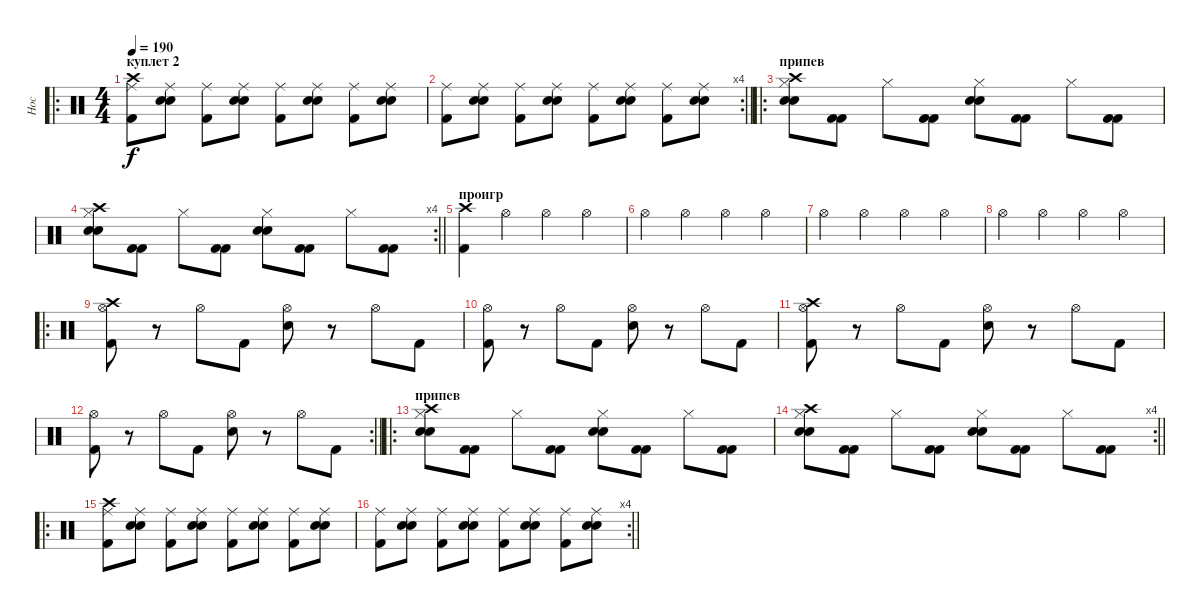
\track ("Нос" "Нос") {instrument percussion}
\staff {score}
\articulation defaults
\ro
\ts (4 4)
\section ("" "куплет 2")
\tempo 190
\clef neutral
\ks c
("Crash high (hit)" "Ride (middle)" "Kick (hit) 2").8{dy f} ("Snare (hit) 2" "Ride (middle)" "Snare (hit) 2").8 ("Ride (middle)" "Kick (hit) 2").8 ("Snare (hit) 2" "Ride (middle)" "Snare (hit) 2").8 ("Ride (middle)" "Kick (hit) 2").8 ("Snare (hit) 2" "Ride (middle)" "Snare (hit) 2").8 ("Ride (middle)" "Kick (hit) 2").8 ("Snare (hit) 2" "Ride (middle)" "Snare (hit) 2").8 |
\rc 4
\barLineRight lightlight
("Ride (middle)" "Kick (hit) 2").8 ("Snare (hit) 2" "Ride (middle)" "Snare (hit) 2").8 ("Ride (middle)" "Kick (hit) 2").8 ("Snare (hit) 2" "Ride (middle)" "Snare (hit) 2").8 ("Ride (middle)" "Kick (hit) 2").8 ("Snare (hit) 2" "Ride (middle)" "Snare (hit) 2").8 ("Ride (middle)" "Kick (hit) 2").8 ("Snare (hit) 2" "Ride (middle)" "Snare (hit) 2").8 |
\ro
\section ("" "припев")
("Hi-Hat (closed)" "Snare (hit) 2" "Crash high (hit)" "Snare (hit) 2").8 ("Kick (hit) 2" "Kick (hit) 2").8 "Hi-Hat (closed)".8 ("Kick (hit) 2" "Kick (hit) 2").8 ("Hi-Hat (closed)" "Snare (hit) 2" "Snare (hit) 2").8 ("Kick (hit) 2" "Kick (hit) 2").8 "Hi-Hat (closed)".8 ("Kick (hit) 2" "Kick (hit) 2").8 |
\rc 4
\barLineRight lightlight
("Hi-Hat (closed)" "Snare (hit) 2" "Crash high (hit)" "Snare (hit) 2").8 ("Kick (hit) 2" "Kick (hit) 2").8 "Hi-Hat (closed)".8 ("Kick (hit) 2" "Kick (hit) 2").8 ("Hi-Hat (closed)" "Snare (hit) 2" "Snare (hit) 2").8 ("Kick (hit) 2" "Kick (hit) 2").8 "Hi-Hat (closed)".8 ("Kick (hit) 2" "Kick (hit) 2").8 |
\section ("" "проигр")
("Crash high (hit)" "Kick (hit) 2").4 "Hi-Hat (open)".4 "Hi-Hat (open)".4 "Hi-Hat (open)".4 |
"Hi-Hat (open)".4 "Hi-Hat (open)".4 "Hi-Hat (open)".4 "Hi-Hat (open)".4 |
"Hi-Hat (open)".4 "Hi-Hat (open)".4 "Hi-Hat (open)".4 "Hi-Hat (open)".4 |
"Hi-Hat (open)".4 "Hi-Hat (open)".4 "Hi-Hat (open)".4 "Hi-Hat (open)".4 |
\ro
("Crash high (hit)" "Kick (hit) 2" "Hi-Hat (open)").8 r.8 "Hi-Hat (open)".8 "Kick (hit) 2".8 ("Snare (hit) 2" "Hi-Hat (open)").8 r.8 "Hi-Hat (open)".8 "Kick (hit) 2".8 |
("Kick (hit) 2" "Hi-Hat (open)").8 r.8 "Hi-Hat (open)".8 "Kick (hit) 2".8 ("Snare (hit) 2" "Hi-Hat (open)").8 r.8 "Hi-Hat (open)".8 "Kick (hit) 2".8 |
("Crash high (hit)" "Kick (hit) 2" "Hi-Hat (open)").8 r.8 "Hi-Hat (open)".8 "Kick (hit) 2".8 ("Snare (hit) 2" "Hi-Hat (open)").8 r.8 "Hi-Hat (open)".8 "Kick (hit) 2".8 |
\rc 2
\barLineRight lightlight
("Kick (hit) 2" "Hi-Hat (open)").8 r.8 "Hi-Hat (open)".8 "Kick (hit) 2".8 ("Snare (hit) 2" "Hi-Hat (open)").8 r.8 "Hi-Hat (open)".8 "Kick (hit) 2".8 |
\ro
\section ("" "припев")
("Hi-Hat (closed)" "Snare (hit) 2" "Crash high (hit)" "Snare (hit) 2").8 ("Kick (hit) 2" "Kick (hit) 2").8 "Hi-Hat (closed)".8 ("Kick (hit) 2" "Kick (hit) 2").8 ("Hi-Hat (closed)" "Snare (hit) 2" "Snare (hit) 2").8 ("Kick (hit) 2" "Kick (hit) 2").8 "Hi-Hat (closed)".8 ("Kick (hit) 2" "Kick (hit) 2").8 |
\rc 4
\barLineRight lightlight
("Hi-Hat (closed)" "Snare (hit) 2" "Crash high (hit)" "Snare (hit) 2").8 ("Kick (hit) 2" "Kick (hit) 2").8 "Hi-Hat (closed)".8 ("Kick (hit) 2" "Kick (hit) 2").8 ("Hi-Hat (closed)" "Snare (hit) 2" "Snare (hit) 2").8 ("Kick (hit) 2" "Kick (hit) 2").8 "Hi-Hat (closed)".8 ("Kick (hit) 2" "Kick (hit) 2").8 |
\ro
("Crash high (hit)" "Ride (middle)" "Kick (hit) 2").8 ("Snare (hit) 2" "Ride (middle)" "Snare (hit) 2").8 ("Ride (middle)" "Kick (hit) 2").8 ("Snare (hit) 2" "Ride (middle)" "Snare (hit) 2").8 ("Ride (middle)" "Kick (hit) 2").8 ("Snare (hit) 2" "Ride (middle)" "Snare (hit) 2").8 ("Ride (middle)" "Kick (hit) 2").8 ("Snare (hit) 2" "Ride (middle)" "Snare (hit) 2").8 |
\rc 4
\barLineRight lightlight
("Ride (middle)" "Kick (hit) 2").8 ("Snare (hit) 2" "Ride (middle)" "Snare (hit) 2").8 ("Ride (middle)" "Kick (hit) 2").8 ("Snare (hit) 2" "Ride (middle)" "Snare (hit) 2").8 ("Ride (middle)" "Kick (hit) 2").8 ("Snare (hit) 2" "Ride (middle)" "Snare (hit) 2").8 ("Ride (middle)" "Kick (hit) 2").8 ("Snare (hit) 2" "Ride (middle)" "Snare (hit) 2").8
